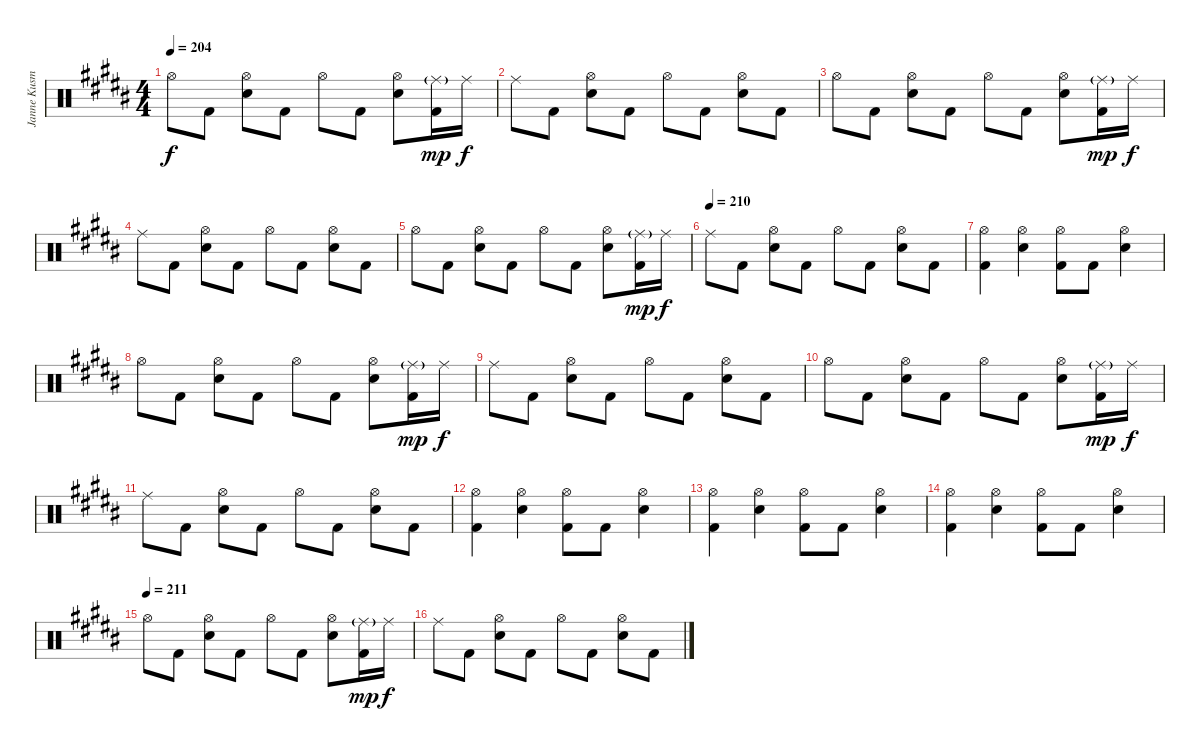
\track ("Janne Kusmin" "Janne Kusm") {instrument percussion}
\staff {score}
\articulation defaults
\ts (4 4)
\tempo 204
\clef neutral
\ks g#minor "Hi-Hat (open)".8{dy f} "Kick (hit) 2".8
("Hi-Hat (open)" "Electric Snare (hit)").8 "Kick (hit) 2".8 "Hi-Hat (open)".8 "Kick (hit) 2".8 ("Hi-Hat (open)" "Electric Snare (hit)").8 ("Ride (middle)"{g} "Kick (hit) 2").16{dy mp} "Ride (middle)".16{dy f} |
"Ride (middle)".8 "Kick (hit) 2".8 ("Hi-Hat (open)" "Electric Snare (hit)").8 "Kick (hit) 2".8 "Hi-Hat (open)".8 "Kick (hit) 2".8 ("Hi-Hat (open)" "Electric Snare (hit)").8 "Kick (hit) 2".8 |
"Hi-Hat (open)".8 "Kick (hit) 2".8 ("Hi-Hat (open)" "Electric Snare (hit)").8 "Kick (hit) 2".8 "Hi-Hat (open)".8 "Kick (hit) 2".8 ("Hi-Hat (open)" "Electric Snare (hit)").8 ("Ride (middle)"{g} "Kick (hit) 2").16{dy mp} "Ride (middle)".16{dy f} |
"Ride (middle)".8 "Kick (hit) 2".8 ("Hi-Hat (open)" "Electric Snare (hit)").8 "Kick (hit) 2".8 "Hi-Hat (open)".8 "Kick (hit) 2".8 ("Hi-Hat (open)" "Electric Snare (hit)").8 "Kick (hit) 2".8 |
"Hi-Hat (open)".8 "Kick (hit) 2".8 ("Hi-Hat (open)" "Electric Snare (hit)").8 "Kick (hit) 2".8 "Hi-Hat (open)".8 "Kick (hit) 2".8 ("Hi-Hat (open)" "Electric Snare (hit)").8 ("Ride (middle)"{g} "Kick (hit) 2").16{dy mp} "Ride (middle)".16{dy f} |
\tempo (210)
"Ride (middle)".8 "Kick (hit) 2".8 ("Hi-Hat (open)" "Electric Snare (hit)").8 "Kick (hit) 2".8 "Hi-Hat (open)".8 "Kick (hit) 2".8 ("Hi-Hat (open)" "Electric Snare (hit)").8 "Kick (hit) 2".8 |
("Hi-Hat (open)" "Kick (hit) 2").4 ("Hi-Hat (open)" "Electric Snare (hit)").4 ("Hi-Hat (open)" "Kick (hit) 2").8 "Kick (hit) 2".8 ("Hi-Hat (open)" "Electric Snare (hit)").4 |
"Hi-Hat (open)".8 "Kick (hit) 2".8 ("Hi-Hat (open)" "Electric Snare (hit)").8 "Kick (hit) 2".8 "Hi-Hat (open)".8 "Kick (hit) 2".8 ("Hi-Hat (open)" "Electric Snare (hit)").8 ("Ride (middle)"{g} "Kick (hit) 2").16{dy mp} "Ride (middle)".16{dy f} |
"Ride (middle)".8 "Kick (hit) 2".8 ("Hi-Hat (open)" "Electric Snare (hit)").8 "Kick (hit) 2".8 "Hi-Hat (open)".8 "Kick (hit) 2".8 ("Hi-Hat (open)" "Electric Snare (hit)").8 "Kick (hit) 2".8 |
"Hi-Hat (open)".8 "Kick (hit) 2".8 ("Hi-Hat (open)" "Electric Snare (hit)").8 "Kick (hit) 2".8 "Hi-Hat (open)".8 "Kick (hit) 2".8 ("Hi-Hat (open)" "Electric Snare (hit)").8 ("Ride (middle)"{g} "Kick (hit) 2").16{dy mp} "Ride (middle)".16{dy f} |
"Ride (middle)".8 "Kick (hit) 2".8 ("Hi-Hat (open)" "Electric Snare (hit)").8 "Kick (hit) 2".8 "Hi-Hat (open)".8 "Kick (hit) 2".8 ("Hi-Hat (open)" "Electric Snare (hit)").8 "Kick (hit) 2".8 |
("Hi-Hat (open)" "Kick (hit) 2").4 ("Hi-Hat (open)" "Electric Snare (hit)").4 ("Hi-Hat (open)" "Kick (hit) 2").8 "Kick (hit) 2".8 ("Hi-Hat (open)" "Electric Snare (hit)").4 |
("Hi-Hat (open)" "Kick (hit) 2").4 ("Hi-Hat (open)" "Electric Snare (hit)").4 ("Hi-Hat (open)" "Kick (hit) 2").8 "Kick (hit) 2".8 ("Hi-Hat (open)" "Electric Snare (hit)").4 |
("Hi-Hat (open)" "Kick (hit) 2").4 ("Hi-Hat (open)" "Electric Snare (hit)").4 ("Hi-Hat (open)" "Kick (hit) 2").8 "Kick (hit) 2".8 ("Hi-Hat (open)" "Electric Snare (hit)").4 |
\tempo (211)
"Hi-Hat (open)".8 "Kick (hit) 2".8 ("Hi-Hat (open)" "Electric Snare (hit)").8 "Kick (hit) 2".8 "Hi-Hat (open)".8 "Kick (hit) 2".8 ("Hi-Hat (open)" "Electric Snare (hit)").8 ("Ride (middle)"{g} "Kick (hit) 2").16{dy mp} "Ride (middle)".16{dy f} |
"Ride (middle)".8 "Kick (hit) 2".8 ("Hi-Hat (open)" "Electric Snare (hit)").8 "Kick (hit) 2".8 "Hi-Hat (open)".8 "Kick (hit) 2".8 ("Hi-Hat (open)" "Electric Snare (hit)").8 "Kick (hit) 2".8
